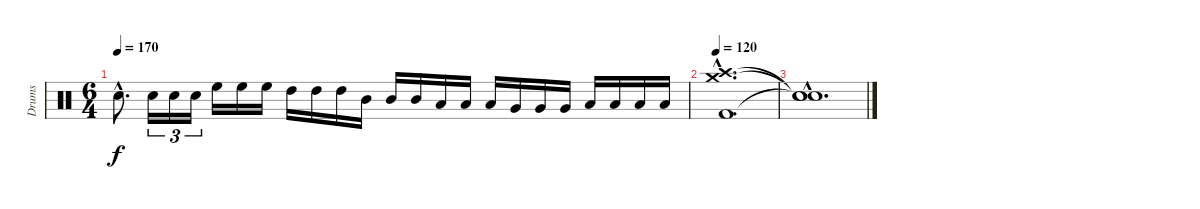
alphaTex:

\track ("Drums" "Drums") {instrument percussion}
\staff {score}
\articulation defaults
\ts (6 4)
\tempo 170
\clef neutral
\ks c "Snare (hit) 2"{hac}.8{d dy f} "Snare (hit) 2".16{tu (3 2)} "Snare (hit) 2".16{tu (3 2)} "Snare (hit) 2".16{tu (3 2)} "High Floor Tom (hit)".16 "High Floor Tom (hit)".16 "High Floor Tom (hit)".16 "High Tom (hit)".16 "High Tom (hit)".16 "High Tom (hit)".16 "Mid Tom (hit)".16 "Mid Tom (hit)".16 "Mid Tom (hit)".16 "Low Tom (hit)".16 "Low Tom (hit)".16 "Low Tom (hit)".16 "Very Low Tom (hit)".16 "Very Low Tom (hit)".16 "Very Low Tom (hit)".16 "Low Floor Tom (hit)".16 "Low Floor Tom (hit)".16 "Low Floor Tom (hit)".16 "Low Floor Tom (hit)".16
|
\tempo 120
("Crash medium (hit)"{hac} "Crash high (hit)"{hac} "Kick (hit) 2"{hac}).1{d volume 0} |
("Snare (hit)"{hac t} "Snare (hit)"{hac t} "Snare (hit)"{hac t}).1{d}
